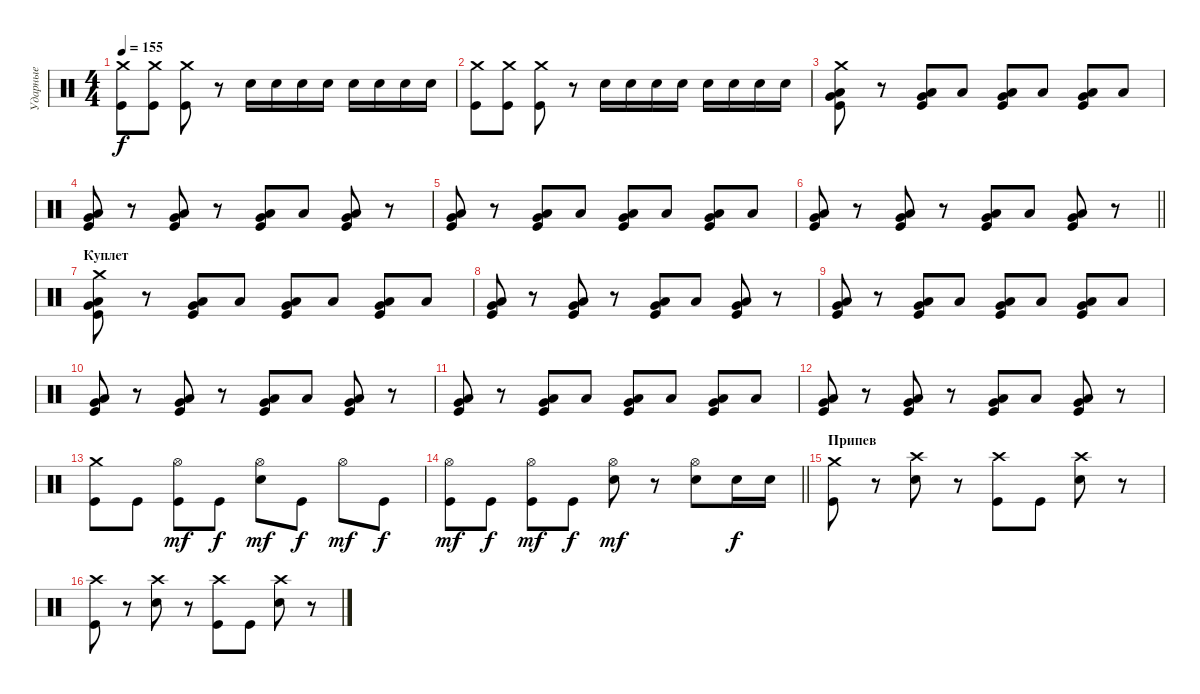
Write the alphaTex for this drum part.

\track ("Ударные" "Ударные") {instrument percussion}
\staff {score}
\articulation defaults
\ts (4 4)
\tempo 155
\clef neutral
\ks c
("Crash medium (hit)" "Kick (hit)").8{dy f} ("Crash medium (hit)" "Kick (hit)").8 ("Crash medium (hit)" "Kick (hit)").8 r.8 "Electric Snare (hit)".16 "Electric Snare (hit)".16 "Electric Snare (hit)".16 "Electric Snare (hit)".16 "Electric Snare (hit)".16 "Electric Snare (hit)".16 "Electric Snare (hit)".16 "Electric Snare (hit)".16 |
("Crash medium (hit)" "Kick (hit)").8 ("Crash medium (hit)" "Kick (hit)").8 ("Crash medium (hit)" "Kick (hit)").8 r.8 "Electric Snare (hit)".16 "Electric Snare (hit)".16 "Electric Snare (hit)".16 "Electric Snare (hit)".16 "Electric Snare (hit)".16 "Electric Snare (hit)".16 "Electric Snare (hit)".16 "Electric Snare (hit)".16 |
("Crash medium (hit)" "Kick (hit)" "Very Low Tom (hit)" "Low Tom (hit)").8 r.8 ("Kick (hit)" "Very Low Tom (hit)" "Low Tom (hit)").8 "Low Tom (hit)".8 ("Kick (hit)" "Very Low Tom (hit)" "Low Tom (hit)").8 "Low Tom (hit)".8 ("Kick (hit)" "Very Low Tom (hit)" "Low Tom (hit)").8 "Low Tom (hit)".8 |
("Kick (hit)" "Very Low Tom (hit)" "Low Tom (hit)").8 r.8 ("Kick (hit)" "Very Low Tom (hit)" "Low Tom (hit)").8 r.8 ("Kick (hit)" "Very Low Tom (hit)" "Low Tom (hit)").8 "Low Tom (hit)".8 ("Kick (hit)" "Very Low Tom (hit)" "Low Tom (hit)").8 r.8 |
("Kick (hit)" "Very Low Tom (hit)" "Low Tom (hit)").8 r.8 ("Kick (hit)" "Very Low Tom (hit)" "Low Tom (hit)").8 "Low Tom (hit)".8 ("Kick (hit)" "Very Low Tom (hit)" "Low Tom (hit)").8 "Low Tom (hit)".8 ("Kick (hit)" "Very Low Tom (hit)" "Low Tom (hit)").8 "Low Tom (hit)".8 |
\barLineRight lightlight
("Kick (hit)" "Very Low Tom (hit)" "Low Tom (hit)").8 r.8 ("Kick (hit)" "Very Low Tom (hit)" "Low Tom (hit)").8 r.8 ("Kick (hit)" "Very Low Tom (hit)" "Low Tom (hit)").8 "Low Tom (hit)".8 ("Kick (hit)" "Very Low Tom (hit)" "Low Tom (hit)").8 r.8 |
\section ("" "Куплет")
("Crash medium (hit)" "Kick (hit)" "Very Low Tom (hit)" "Low Tom (hit)").8 r.8 ("Kick (hit)" "Very Low Tom (hit)" "Low Tom (hit)").8 "Low Tom (hit)".8 ("Kick (hit)" "Very Low Tom (hit)" "Low Tom (hit)").8 "Low Tom (hit)".8 ("Kick (hit)" "Very Low Tom (hit)" "Low Tom (hit)").8 "Low Tom (hit)".8 |
("Kick (hit)" "Very Low Tom (hit)" "Low Tom (hit)").8 r.8 ("Kick (hit)" "Very Low Tom (hit)" "Low Tom (hit)").8 r.8 ("Kick (hit)" "Very Low Tom (hit)" "Low Tom (hit)").8 "Low Tom (hit)".8 ("Kick (hit)" "Very Low Tom (hit)" "Low Tom (hit)").8 r.8 |
("Kick (hit)" "Very Low Tom (hit)" "Low Tom (hit)").8 r.8 ("Kick (hit)" "Very Low Tom (hit)" "Low Tom (hit)").8 "Low Tom (hit)".8 ("Kick (hit)" "Very Low Tom (hit)" "Low Tom (hit)").8 "Low Tom (hit)".8 ("Kick (hit)" "Very Low Tom (hit)" "Low Tom (hit)").8 "Low Tom (hit)".8 |
("Kick (hit)" "Very Low Tom (hit)" "Low Tom (hit)").8 r.8 ("Kick (hit)" "Very Low Tom (hit)" "Low Tom (hit)").8 r.8 ("Kick (hit)" "Very Low Tom (hit)" "Low Tom (hit)").8 "Low Tom (hit)".8 ("Kick (hit)" "Very Low Tom (hit)" "Low Tom (hit)").8 r.8 |
("Kick (hit)" "Very Low Tom (hit)" "Low Tom (hit)").8 r.8 ("Kick (hit)" "Very Low Tom (hit)" "Low Tom (hit)").8 "Low Tom (hit)".8 ("Kick (hit)" "Very Low Tom (hit)" "Low Tom (hit)").8 "Low Tom (hit)".8 ("Kick (hit)" "Very Low Tom (hit)" "Low Tom (hit)").8 "Low Tom (hit)".8 |
("Kick (hit)" "Very Low Tom (hit)" "Low Tom (hit)").8 r.8 ("Kick (hit)" "Very Low Tom (hit)" "Low Tom (hit)").8 r.8 ("Kick (hit)" "Very Low Tom (hit)" "Low Tom (hit)").8 "Low Tom (hit)".8 ("Kick (hit)" "Very Low Tom (hit)" "Low Tom (hit)").8 r.8 |
("Crash medium (hit)" "Kick (hit)").8 "Kick (hit)".8 ("Hi-Hat (open)" "Kick (hit)").8{dy mf} "Kick (hit)".8{dy f} ("Hi-Hat (open)" "Electric Snare (hit)").8{dy mf} "Kick (hit)".8{dy f} "Hi-Hat (open)".8{dy mf} "Kick (hit)".8{dy f} |
\barLineRight lightlight
("Hi-Hat (open)" "Kick (hit)").8{dy mf} "Kick (hit)".8{dy f} ("Hi-Hat (open)" "Kick (hit)").8{dy mf} "Kick (hit)".8{dy f} ("Hi-Hat (open)" "Electric Snare (hit)").8{dy mf} r.8 ("Hi-Hat (open)" "Electric Snare (hit)").8 "Electric Snare (hit)".16{dy f} "Electric Snare (hit)".16 |
\section ("" "Припев")
("Crash medium (hit)" "Kick (hit)").8 r.8 ("Crash high (hit)" "Electric Snare (hit)").8 r.8 ("Crash high (hit)" "Kick (hit)").8 "Kick (hit)".8 ("Crash high (hit)" "Electric Snare (hit)").8 r.8 |
("Crash high (hit)" "Kick (hit)").8 r.8 ("Crash high (hit)" "Electric Snare (hit)").8 r.8 ("Crash high (hit)" "Kick (hit)").8 "Kick (hit)".8 ("Crash high (hit)" "Electric Snare (hit)").8 r.8
